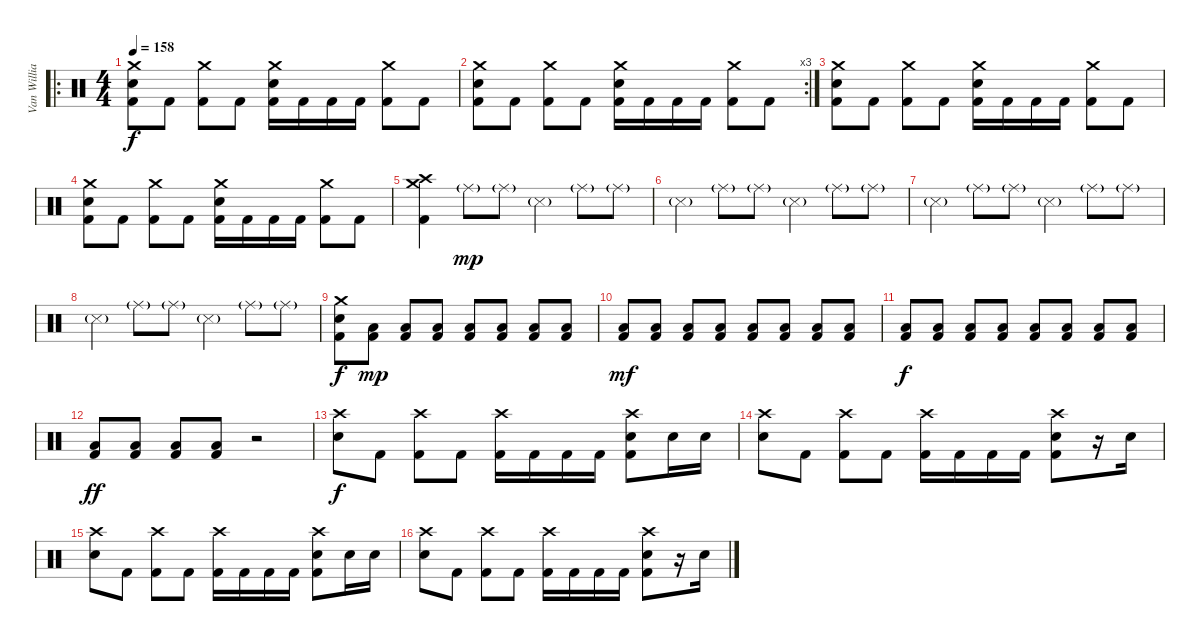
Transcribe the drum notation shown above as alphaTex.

\track ("Van Williams" "Van Willia") {instrument percussion}
\staff {score}
\articulation defaults
\ro
\ts (4 4)
\tempo 158
\clef neutral
\ks c
("Crash medium (hit)" "Electric Snare (hit)" "Kick (hit) 2").8{dy f} "Kick (hit) 2".8 ("Crash medium (hit)" "Kick (hit) 2").8 "Kick (hit) 2".8 ("Crash medium (hit)" "Electric Snare (hit)" "Kick (hit) 2").16 "Kick (hit) 2".16 "Kick (hit) 2".16 "Kick (hit) 2".16 ("Crash medium (hit)" "Kick (hit) 2").8 "Kick (hit) 2".8 |
\rc 3
("Crash medium (hit)" "Electric Snare (hit)" "Kick (hit) 2").8 "Kick (hit) 2".8 ("Crash medium (hit)" "Kick (hit) 2").8 "Kick (hit) 2".8 ("Crash medium (hit)" "Electric Snare (hit)" "Kick (hit) 2").16 "Kick (hit) 2".16 "Kick (hit) 2".16 "Kick (hit) 2".16 ("Crash medium (hit)" "Kick (hit) 2").8 "Kick (hit) 2".8 |
("Crash medium (hit)" "Electric Snare (hit)" "Kick (hit) 2").8 "Kick (hit) 2".8 ("Crash medium (hit)" "Kick (hit) 2").8 "Kick (hit) 2".8 ("Crash medium (hit)" "Electric Snare (hit)" "Kick (hit) 2").16 "Kick (hit) 2".16 "Kick (hit) 2".16 "Kick (hit) 2".16 ("Crash medium (hit)" "Kick (hit) 2").8 "Kick (hit) 2".8 |
("Crash medium (hit)" "Electric Snare (hit)" "Kick (hit) 2").8 "Kick (hit) 2".8 ("Crash medium (hit)" "Kick (hit) 2").8 "Kick (hit) 2".8 ("Crash medium (hit)" "Electric Snare (hit)" "Kick (hit) 2").16 "Kick (hit) 2".16 "Kick (hit) 2".16 "Kick (hit) 2".16 ("Crash medium (hit)" "Kick (hit) 2").8 "Kick (hit) 2".8 |
("Crash high (hit)" "Crash medium (hit)" "Kick (hit) 2").4 "Ride (middle)"{g}.8{dy mp} "Ride (middle)"{g}.8 "Metronome (hit)"{g}.4 "Ride (middle)"{g}.8 "Ride (middle)"{g}.8 |
"Metronome (hit)"{g}.4 "Ride (middle)"{g}.8 "Ride (middle)"{g}.8 "Metronome (hit)"{g}.4 "Ride (middle)"{g}.8 "Ride (middle)"{g}.8 |
"Metronome (hit)"{g}.4 "Ride (middle)"{g}.8 "Ride (middle)"{g}.8 "Metronome (hit)"{g}.4 "Ride (middle)"{g}.8 "Ride (middle)"{g}.8 |
"Metronome (hit)"{g}.4 "Ride (middle)"{g}.8 "Ride (middle)"{g}.8 "Metronome (hit)"{g}.4 "Ride (middle)"{g}.8 "Ride (middle)"{g}.8 |
("Crash medium (hit)" "Electric Snare (hit)" "Kick (hit) 2").8{dy f} ("Low Floor Tom (hit)" "Kick (hit) 2").8{dy mp} ("Low Floor Tom (hit)" "Kick (hit) 2").8 ("Low Floor Tom (hit)" "Kick (hit) 2").8 ("Low Floor Tom (hit)" "Kick (hit) 2").8 ("Low Floor Tom (hit)" "Kick (hit) 2").8 ("Low Floor Tom (hit)" "Kick (hit) 2").8 ("Low Floor Tom (hit)" "Kick (hit) 2").8 |
("Low Floor Tom (hit)" "Kick (hit) 2").8{dy mf} ("Low Floor Tom (hit)" "Kick (hit) 2").8 ("Low Floor Tom (hit)" "Kick (hit) 2").8 ("Low Floor Tom (hit)" "Kick (hit) 2").8 ("Low Floor Tom (hit)" "Kick (hit) 2").8 ("Low Floor Tom (hit)" "Kick (hit) 2").8 ("Low Floor Tom (hit)" "Kick (hit) 2").8 ("Low Floor Tom (hit)" "Kick (hit) 2").8 |
("Low Floor Tom (hit)" "Kick (hit) 2").8{dy f} ("Low Floor Tom (hit)" "Kick (hit) 2").8 ("Low Floor Tom (hit)" "Kick (hit) 2").8 ("Low Floor Tom (hit)" "Kick (hit) 2").8 ("Low Floor Tom (hit)" "Kick (hit) 2").8 ("Low Floor Tom (hit)" "Kick (hit) 2").8 ("Low Floor Tom (hit)" "Kick (hit) 2").8 ("Low Floor Tom (hit)" "Kick (hit) 2").8 |
("Low Floor Tom (hit)" "Kick (hit) 2").8{dy ff} ("Low Floor Tom (hit)" "Kick (hit) 2").8 ("Low Floor Tom (hit)" "Kick (hit) 2").8 ("Low Floor Tom (hit)" "Kick (hit) 2").8 r.2 |
("Crash high (hit)" "Electric Snare (hit)").8{dy f} "Kick (hit) 2".8 ("Crash high (hit)" "Kick (hit) 2").8 "Kick (hit) 2".8 ("Crash high (hit)" "Kick (hit) 2").16 "Kick (hit) 2".16 "Kick (hit) 2".16 "Kick (hit) 2".16 ("Crash high (hit)" "Electric Snare (hit)" "Kick (hit) 2").8 "Electric Snare (hit)".16 "Electric Snare (hit)".16 |
("Crash high (hit)" "Electric Snare (hit)").8 "Kick (hit) 2".8 ("Crash high (hit)" "Kick (hit) 2").8 "Kick (hit) 2".8 ("Crash high (hit)" "Kick (hit) 2").16 "Kick (hit) 2".16 "Kick (hit) 2".16 "Kick (hit) 2".16 ("Crash high (hit)" "Electric Snare (hit)" "Kick (hit) 2").8 r.16 "Electric Snare (hit)".16 |
("Crash high (hit)" "Electric Snare (hit)").8 "Kick (hit) 2".8 ("Crash high (hit)" "Kick (hit) 2").8 "Kick (hit) 2".8 ("Crash high (hit)" "Kick (hit) 2").16 "Kick (hit) 2".16 "Kick (hit) 2".16 "Kick (hit) 2".16 ("Crash high (hit)" "Electric Snare (hit)" "Kick (hit) 2").8 "Electric Snare (hit)".16 "Electric Snare (hit)".16 |
("Crash high (hit)" "Electric Snare (hit)").8 "Kick (hit) 2".8 ("Crash high (hit)" "Kick (hit) 2").8 "Kick (hit) 2".8 ("Crash high (hit)" "Kick (hit) 2").16 "Kick (hit) 2".16 "Kick (hit) 2".16 "Kick (hit) 2".16 ("Crash high (hit)" "Electric Snare (hit)" "Kick (hit) 2").8 r.16 "Electric Snare (hit)".16
